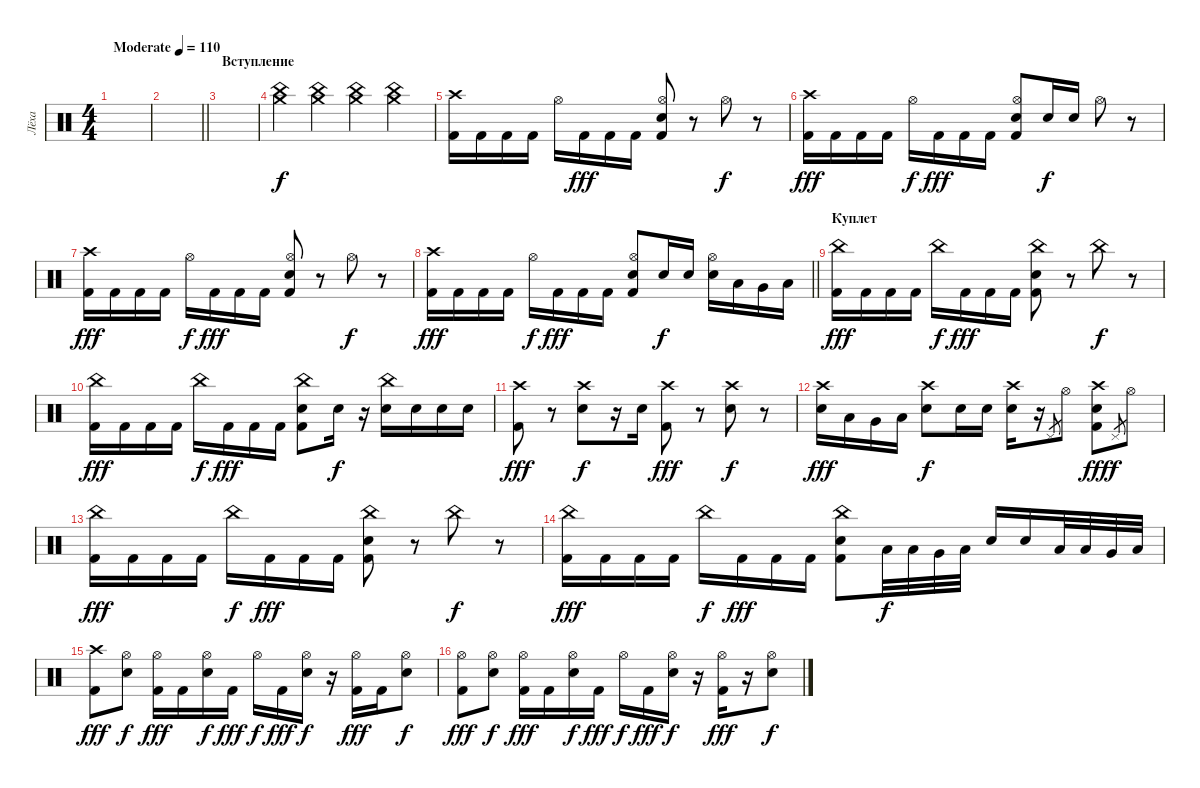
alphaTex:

\track ("Лёха" "Лёха") {instrument percussion}
\staff {score}
\articulation defaults
\ts (4 4)
\tempo (110 "Moderate")
\clef neutral
\ks c
|
\barLineRight lightlight
|
\section ("" "Вступление")
|
("Crash medium (hit)" "China (hit)").4 ("Crash medium (hit)" "China (hit)").4 ("Crash medium (hit)" "China (hit)").4 ("Crash medium (hit)" "China (hit)").4 |
("Crash high (hit)" "Kick (hit) 2").16 "Kick (hit) 2".16 "Kick (hit) 2".16 "Kick (hit) 2".16 "Hi-Hat (open)".16{dy f} "Kick (hit) 2".16{dy fff} "Kick (hit) 2".16 "Kick (hit) 2".16 ("Hi-Hat (open)" "Electric Snare (hit)" "Kick (hit) 2").8 r.8 "Hi-Hat (open)".8{dy f} r.8 |
("Crash high (hit)" "Kick (hit) 2").16{dy fff} "Kick (hit) 2".16 "Kick (hit) 2".16 "Kick (hit) 2".16 "Hi-Hat (open)".16{dy f} "Kick (hit) 2".16{dy fff} "Kick (hit) 2".16 "Kick (hit) 2".16 ("Hi-Hat (open)" "Electric Snare (hit)" "Kick (hit) 2").8 "Electric Snare (hit)".16{dy f} "Electric Snare (hit)".16 "Hi-Hat (open)".8 r.8 |
("Crash high (hit)" "Kick (hit) 2").16{dy fff} "Kick (hit) 2".16 "Kick (hit) 2".16 "Kick (hit) 2".16 "Hi-Hat (open)".16{dy f} "Kick (hit) 2".16{dy fff} "Kick (hit) 2".16 "Kick (hit) 2".16 ("Hi-Hat (open)" "Electric Snare (hit)" "Kick (hit) 2").8 r.8 "Hi-Hat (open)".8{dy f} r.8 |
\barLineRight lightlight
("Crash high (hit)" "Kick (hit) 2").16{dy fff} "Kick (hit) 2".16 "Kick (hit) 2".16 "Kick (hit) 2".16 "Hi-Hat (open)".16{dy f} "Kick (hit) 2".16{dy fff} "Kick (hit) 2".16 "Kick (hit) 2".16 ("Hi-Hat (open)" "Electric Snare (hit)" "Kick (hit) 2").8 "Electric Snare (hit)".16{dy f} "Electric Snare (hit)".16 ("Hi-Hat (open)" "Electric Snare (hit)").16 "Low Tom (hit)".16 "Very Low Tom (hit)".16 "Low Floor Tom (hit)".16 |
\section ("" "Куплет")
("China (hit)" "Kick (hit) 2").16{dy fff} "Kick (hit) 2".16 "Kick (hit) 2".16 "Kick (hit) 2".16 "China (hit)".16{dy f} "Kick (hit) 2".16{dy fff} "Kick (hit) 2".16 "Kick (hit) 2".16 ("China (hit)" "Electric Snare (hit)" "Kick (hit) 2").8 r.8 "China (hit)".8{dy f} r.8 |
("China (hit)" "Kick (hit) 2").16{dy fff} "Kick (hit) 2".16 "Kick (hit) 2".16 "Kick (hit) 2".16 "China (hit)".16{dy f} "Kick (hit) 2".16{dy fff} "Kick (hit) 2".16 "Kick (hit) 2".16 ("China (hit)" "Electric Snare (hit)" "Kick (hit) 2").8 "Electric Snare (hit)".16{dy f} r.16 ("China (hit)" "Electric Snare (hit)").16 "Electric Snare (hit)".16 "Electric Snare (hit)".16 "Electric Snare (hit)".16 |
("Crash high (hit)" "Kick (hit) 2").8{dy fff} r.8 ("Crash high (hit)" "Electric Snare (hit)").8{dy f} r.16 "Electric Snare (hit)".16 ("Crash high (hit)" "Kick (hit) 2").8{dy fff} r.8 ("Crash high (hit)" "Electric Snare (hit)").8{dy f} r.8 |
("Crash high (hit)" "Electric Snare (hit)").16{dy fff} "Low Tom (hit)".16 "Very Low Tom (hit)".16 "Low Floor Tom (hit)".16 ("Crash high (hit)" "Electric Snare (hit)").8{dy f} "Electric Snare (hit)".16 "Electric Snare (hit)".16 ("Crash high (hit)" "Electric Snare (hit)").16 r.16 "Pedal Hi-Hat (hit)".8{gr} "Hi-Hat (open)".8 ("Crash high (hit)" "Electric Snare (hit)" "Kick (hit) 2").8{dy fff} "Pedal Hi-Hat (hit)".8{gr dy f} "Hi-Hat (open)".8 |
("China (hit)" "Kick (hit) 2").16{dy fff} "Kick (hit) 2".16 "Kick (hit) 2".16 "Kick (hit) 2".16 "China (hit)".16{dy f} "Kick (hit) 2".16{dy fff} "Kick (hit) 2".16 "Kick (hit) 2".16 ("China (hit)" "Electric Snare (hit)" "Kick (hit) 2").8 r.8 "China (hit)".8{dy f} r.8 |
("China (hit)" "Kick (hit) 2").16{dy fff} "Kick (hit) 2".16 "Kick (hit) 2".16 "Kick (hit) 2".16 "China (hit)".16{dy f} "Kick (hit) 2".16{dy fff} "Kick (hit) 2".16 "Kick (hit) 2".16 ("China (hit)" "Electric Snare (hit)" "Kick (hit) 2").8 "Low Tom (hit)".32{dy f} "Low Tom (hit)".32 "Very Low Tom (hit)".32 "Low Floor Tom (hit)".32 "Electric Snare (hit)".16 "Electric Snare (hit)".16 "Low Tom (hit)".32 "Low Tom (hit)".32 "Very Low Tom (hit)".32 "Low Floor Tom (hit)".32 |
("Crash high (hit)" "Kick (hit) 2").8{dy fff} ("Hi-Hat (open)" "Electric Snare (hit)").8{dy f} ("Hi-Hat (open)" "Kick (hit) 2").16{dy fff} "Kick (hit) 2".16 ("Hi-Hat (open)" "Electric Snare (hit)").16{dy f} "Kick (hit) 2".16{dy fff} "Hi-Hat (open)".16{dy f} "Kick (hit) 2".16{dy fff} ("Hi-Hat (open)" "Electric Snare (hit)").16{dy f} r.16 ("Hi-Hat (open)" "Kick (hit) 2").16{dy fff} "Kick (hit) 2".16 ("Hi-Hat (open)" "Electric Snare (hit)").8{dy f} |
("Hi-Hat (open)" "Kick (hit) 2").8{dy fff} ("Hi-Hat (open)" "Electric Snare (hit)").8{dy f} ("Hi-Hat (open)" "Kick (hit) 2").16{dy fff} "Kick (hit) 2".16 ("Hi-Hat (open)" "Electric Snare (hit)").16{dy f} "Kick (hit) 2".16{dy fff} "Hi-Hat (open)".16{dy f} "Kick (hit) 2".16{dy fff} ("Hi-Hat (open)" "Electric Snare (hit)").16{dy f} r.16 ("Hi-Hat (open)" "Kick (hit) 2").16{dy fff} r.16 ("Hi-Hat (open)" "Electric Snare (hit)").8{dy f}
